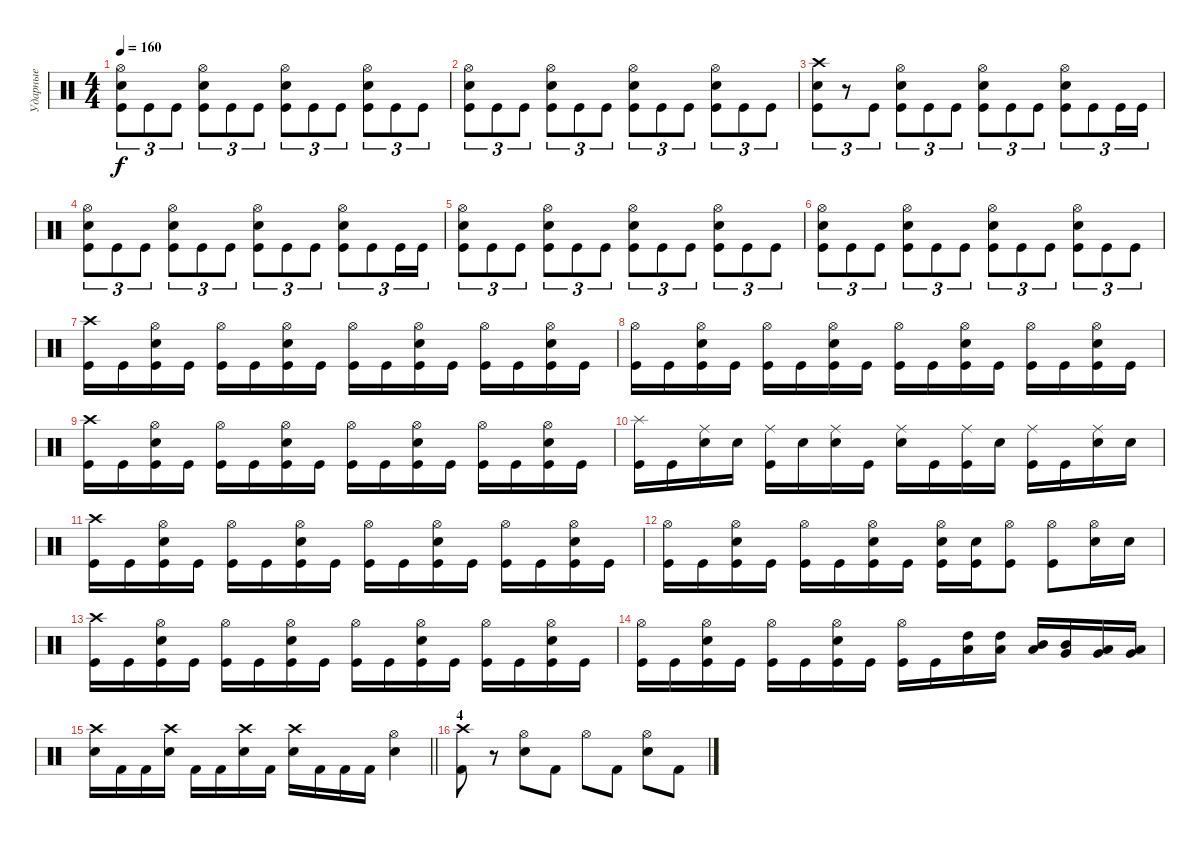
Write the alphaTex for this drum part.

\track ("Ударные" "Ударные") {instrument percussion}
\staff {score}
\articulation defaults
\ts (4 4)
\tempo 160
\clef neutral
\ks c
("Hi-Hat (open)" "Electric Snare (hit)" "Kick (hit)").8{tu (3 2) dy f} "Kick (hit)".8{tu (3 2)} "Kick (hit)".8{tu (3 2)} ("Hi-Hat (open)" "Electric Snare (hit)" "Kick (hit)").8{tu (3 2)} "Kick (hit)".8{tu (3 2)} "Kick (hit)".8{tu (3 2)} ("Hi-Hat (open)" "Electric Snare (hit)" "Kick (hit)").8{tu (3 2)} "Kick (hit)".8{tu (3 2)} "Kick (hit)".8{tu (3 2)} ("Hi-Hat (open)" "Electric Snare (hit)" "Kick (hit)").8{tu (3 2)} "Kick (hit)".8{tu (3 2)} "Kick (hit)".8{tu (3 2)} |
("Hi-Hat (open)" "Electric Snare (hit)" "Kick (hit)").8{tu (3 2)} "Kick (hit)".8{tu (3 2)} "Kick (hit)".8{tu (3 2)} ("Hi-Hat (open)" "Electric Snare (hit)" "Kick (hit)").8{tu (3 2)} "Kick (hit)".8{tu (3 2)} "Kick (hit)".8{tu (3 2)} ("Hi-Hat (open)" "Electric Snare (hit)" "Kick (hit)").8{tu (3 2)} "Kick (hit)".8{tu (3 2)} "Kick (hit)".8{tu (3 2)} ("Hi-Hat (open)" "Electric Snare (hit)" "Kick (hit)").8{tu (3 2)} "Kick (hit)".8{tu (3 2)} "Kick (hit)".8{tu (3 2)} |
("Crash high (hit)" "Electric Snare (hit)" "Kick (hit)").8{tu (3 2)} r.8{tu (3 2)} "Kick (hit)".8{tu (3 2)} ("Hi-Hat (open)" "Electric Snare (hit)" "Kick (hit)").8{tu (3 2)} "Kick (hit)".8{tu (3 2)} "Kick (hit)".8{tu (3 2)} ("Hi-Hat (open)" "Electric Snare (hit)" "Kick (hit)").8{tu (3 2)} "Kick (hit)".8{tu (3 2)} "Kick (hit)".8{tu (3 2)} ("Hi-Hat (open)" "Electric Snare (hit)" "Kick (hit)").8{tu (3 2)} "Kick (hit)".8{tu (3 2)} "Kick (hit)".16{tu (3 2)} "Kick (hit)".16{tu (3 2)} |
("Hi-Hat (open)" "Electric Snare (hit)" "Kick (hit)").8{tu (3 2)} "Kick (hit)".8{tu (3 2)} "Kick (hit)".8{tu (3 2)} ("Hi-Hat (open)" "Electric Snare (hit)" "Kick (hit)").8{tu (3 2)} "Kick (hit)".8{tu (3 2)} "Kick (hit)".8{tu (3 2)} ("Hi-Hat (open)" "Electric Snare (hit)" "Kick (hit)").8{tu (3 2)} "Kick (hit)".8{tu (3 2)} "Kick (hit)".8{tu (3 2)} ("Hi-Hat (open)" "Electric Snare (hit)" "Kick (hit)").8{tu (3 2)} "Kick (hit)".8{tu (3 2)} "Kick (hit)".16{tu (3 2)} "Kick (hit)".16{tu (3 2)} |
("Hi-Hat (open)" "Electric Snare (hit)" "Kick (hit)").8{tu (3 2)} "Kick (hit)".8{tu (3 2)} "Kick (hit)".8{tu (3 2)} ("Hi-Hat (open)" "Electric Snare (hit)" "Kick (hit)").8{tu (3 2)} "Kick (hit)".8{tu (3 2)} "Kick (hit)".8{tu (3 2)} ("Hi-Hat (open)" "Electric Snare (hit)" "Kick (hit)").8{tu (3 2)} "Kick (hit)".8{tu (3 2)} "Kick (hit)".8{tu (3 2)} ("Hi-Hat (open)" "Electric Snare (hit)" "Kick (hit)").8{tu (3 2)} "Kick (hit)".8{tu (3 2)} "Kick (hit)".8{tu (3 2)} |
("Hi-Hat (open)" "Electric Snare (hit)" "Kick (hit)").8{tu (3 2)} "Kick (hit)".8{tu (3 2)} "Kick (hit)".8{tu (3 2)} ("Hi-Hat (open)" "Electric Snare (hit)" "Kick (hit)").8{tu (3 2)} "Kick (hit)".8{tu (3 2)} "Kick (hit)".8{tu (3 2)} ("Hi-Hat (open)" "Electric Snare (hit)" "Kick (hit)").8{tu (3 2)} "Kick (hit)".8{tu (3 2)} "Kick (hit)".8{tu (3 2)} ("Hi-Hat (open)" "Electric Snare (hit)" "Kick (hit)").8{tu (3 2)} "Kick (hit)".8{tu (3 2)} "Kick (hit)".8{tu (3 2)} |
("Crash high (hit)" "Kick (hit)").16 "Kick (hit)".16 ("Hi-Hat (open)" "Electric Snare (hit)" "Kick (hit)").16 "Kick (hit)".16 ("Hi-Hat (open)" "Kick (hit)").16 "Kick (hit)".16 ("Hi-Hat (open)" "Electric Snare (hit)" "Kick (hit)").16 "Kick (hit)".16 ("Hi-Hat (open)" "Kick (hit)").16 "Kick (hit)".16 ("Hi-Hat (open)" "Electric Snare (hit)" "Kick (hit)").16 "Kick (hit)".16 ("Hi-Hat (open)" "Kick (hit)").16 "Kick (hit)".16 ("Hi-Hat (open)" "Electric Snare (hit)" "Kick (hit)").16 "Kick (hit)".16 |
("Hi-Hat (open)" "Kick (hit)").16 "Kick (hit)".16 ("Hi-Hat (open)" "Electric Snare (hit)" "Kick (hit)").16 "Kick (hit)".16 ("Hi-Hat (open)" "Kick (hit)").16 "Kick (hit)".16 ("Hi-Hat (open)" "Electric Snare (hit)" "Kick (hit)").16 "Kick (hit)".16 ("Hi-Hat (open)" "Kick (hit)").16 "Kick (hit)".16 ("Hi-Hat (open)" "Electric Snare (hit)" "Kick (hit)").16 "Kick (hit)".16 ("Hi-Hat (open)" "Kick (hit)").16 "Kick (hit)".16 ("Hi-Hat (open)" "Electric Snare (hit)" "Kick (hit)").16 "Kick (hit)".16 |
("Crash high (hit)" "Kick (hit)").16 "Kick (hit)".16 ("Hi-Hat (open)" "Electric Snare (hit)" "Kick (hit)").16 "Kick (hit)".16 ("Hi-Hat (open)" "Kick (hit)").16 "Kick (hit)".16 ("Hi-Hat (open)" "Electric Snare (hit)" "Kick (hit)").16 "Kick (hit)".16 ("Hi-Hat (open)" "Kick (hit)").16 "Kick (hit)".16 ("Hi-Hat (open)" "Electric Snare (hit)" "Kick (hit)").16 "Kick (hit)".16 ("Hi-Hat (open)" "Kick (hit)").16 "Kick (hit)".16 ("Hi-Hat (open)" "Electric Snare (hit)" "Kick (hit)").16 "Kick (hit)".16 |
("Splash (hit)" "Kick (hit)").16 "Kick (hit)".16 ("Ride (middle)" "Electric Snare (hit)").16 "Electric Snare (hit)".16 ("Ride (middle)" "Kick (hit)").16 "Electric Snare (hit)".16 ("Ride (middle)" "Electric Snare (hit)").16 "Kick (hit)".16 ("Ride (middle)" "Electric Snare (hit)").16 "Kick (hit)".16 ("Ride (middle)" "Kick (hit)").16 "Electric Snare (hit)".16 ("Ride (middle)" "Kick (hit)").16 "Kick (hit)".16 ("Ride (middle)" "Electric Snare (hit)").16 "Electric Snare (hit)".16 |
("Crash high (hit)" "Kick (hit)").16 "Kick (hit)".16 ("Hi-Hat (open)" "Electric Snare (hit)" "Kick (hit)").16 "Kick (hit)".16 ("Hi-Hat (open)" "Kick (hit)").16 "Kick (hit)".16 ("Hi-Hat (open)" "Electric Snare (hit)" "Kick (hit)").16 "Kick (hit)".16 ("Hi-Hat (open)" "Kick (hit)").16 "Kick (hit)".16 ("Hi-Hat (open)" "Electric Snare (hit)" "Kick (hit)").16 "Kick (hit)".16 ("Hi-Hat (open)" "Kick (hit)").16 "Kick (hit)".16 ("Hi-Hat (open)" "Electric Snare (hit)" "Kick (hit)").16 "Kick (hit)".16 |
("Hi-Hat (open)" "Kick (hit)").16 "Kick (hit)".16 ("Hi-Hat (open)" "Electric Snare (hit)" "Kick (hit)").16 "Kick (hit)".16 ("Hi-Hat (open)" "Kick (hit)").16 "Kick (hit)".16 ("Hi-Hat (open)" "Electric Snare (hit)" "Kick (hit)").16 "Kick (hit)".16 ("Hi-Hat (open)" "Electric Snare (hit)" "Kick (hit)").16 ("Electric Snare (hit)" "Kick (hit)").16 ("Hi-Hat (open)" "Kick (hit)").8 ("Hi-Hat (open)" "Kick (hit)").8 ("Hi-Hat (open)" "Electric Snare (hit)").16 "Electric Snare (hit)".16 |
("Crash high (hit)" "Kick (hit)").16 "Kick (hit)".16 ("Hi-Hat (open)" "Electric Snare (hit)" "Kick (hit)").16 "Kick (hit)".16 ("Hi-Hat (open)" "Kick (hit)").16 "Kick (hit)".16 ("Hi-Hat (open)" "Electric Snare (hit)" "Kick (hit)").16 "Kick (hit)".16 ("Hi-Hat (open)" "Kick (hit)").16 "Kick (hit)".16 ("Hi-Hat (open)" "Electric Snare (hit)" "Kick (hit)").16 "Kick (hit)".16 ("Hi-Hat (open)" "Kick (hit)").16 "Kick (hit)".16 ("Hi-Hat (open)" "Electric Snare (hit)" "Kick (hit)").16 "Kick (hit)".16 |
("Hi-Hat (open)" "Kick (hit)").16 "Kick (hit)".16 ("Hi-Hat (open)" "Electric Snare (hit)" "Kick (hit)").16 "Kick (hit)".16 ("Hi-Hat (open)" "Kick (hit)").16 "Kick (hit)".16 ("Hi-Hat (open)" "Electric Snare (hit)" "Kick (hit)").16 "Kick (hit)".16 ("Hi-Hat (open)" "Kick (hit)").16 "Kick (hit)".16 ("High Tom (hit)" "Low Tom (hit)").16{balance 13} ("High Tom (hit)" "Low Tom (hit)").16 ("Mid Tom (hit)" "Low Tom (hit)").16 ("Mid Tom (hit)" "Very Low Tom (hit)").16{balance 11} ("Low Tom (hit)" "Very Low Tom (hit)").16 ("Low Tom (hit)" "Very Low Tom (hit)").16 |
\barLineRight lightlight
("Crash high (hit)" "Electric Snare (hit)").16 "Kick (hit) 2".16 "Kick (hit) 2".16 ("Crash high (hit)" "Electric Snare (hit)").16 "Kick (hit) 2".16 "Kick (hit) 2".16 ("Crash high (hit)" "Electric Snare (hit)").16 "Kick (hit) 2".16 ("Crash high (hit)" "Electric Snare (hit)").16 "Kick (hit) 2".16 "Kick (hit) 2".16 "Kick (hit) 2".16 ("Hi-Hat (open)" "Electric Snare (hit)").4 |
\section ("" "4")
("Crash high (hit)" "Kick (hit) 2").8 r.8 ("Hi-Hat (open)" "Electric Snare (hit)").8 "Kick (hit) 2".8 "Hi-Hat (open)".8 "Kick (hit) 2".8 ("Hi-Hat (open)" "Electric Snare (hit)").8 "Kick (hit) 2".8
